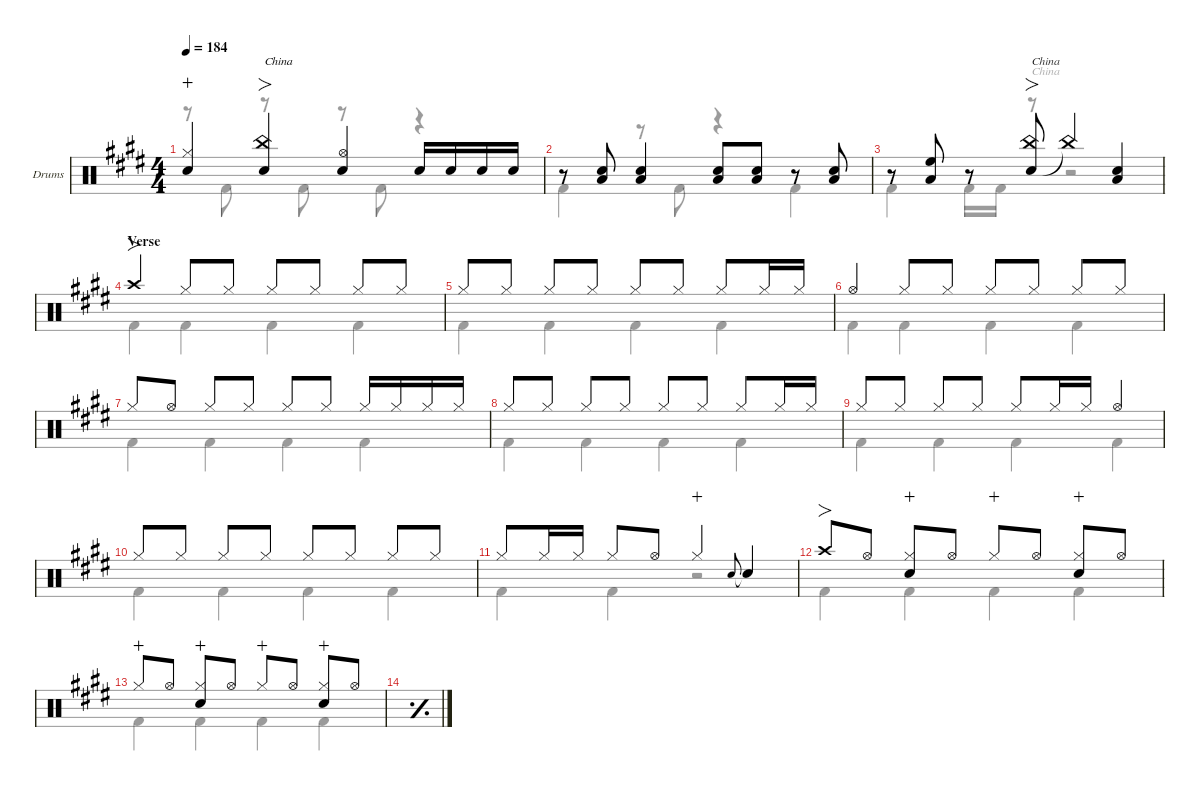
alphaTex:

\defaultSystemsLayout 4
\hideDynamics
\bracketExtendMode nobrackets
\firstSystemTrackNameOrientation horizontal
\track ("Drums" "Drums") {defaultSystemsLayout 4 instrument percussion}
\staff {score}
\articulation defaults
\voice
\ts (4 4)
\tempo 184
\clef neutral
\ks e
("Hi-Hat (closed)"{acc forcenatural} "Snare (hit) 2"{acc forcenatural}).4{dy f wahc} ("Snare (hit) 2"{acc forcenatural} "China (hit)"{acc forcenatural}).4{fo txt "China"} ("Hi-Hat (open)"{acc forcenatural} "Snare (hit) 2"{acc forcenatural}).4 "Snare (hit) 2"{acc forcenatural}.16 "Snare (hit) 2"{acc forcenatural}.16{dy mf} "Snare (hit) 2"{acc forcenatural}.16{dy f} "Snare (hit) 2"{acc forcenatural}.16{dy mf} |
r.8 ("Snare (hit) 2"{acc forcenatural} "Low Tom (hit)"{acc forcenatural}).8{dy f} ("Snare (hit) 2"{acc forcenatural} "Low Tom (hit)"{acc forcenatural}).4 ("Snare (hit) 2"{acc forcenatural} "Low Tom (hit)"{acc forcenatural}).8 ("Snare (hit) 2"{acc forcenatural} "Low Tom (hit)"{acc forcenatural}).8 r.8 ("Snare (hit) 2"{acc forcenatural} "Low Tom (hit)"{acc forcenatural}).8 |
r.8 ("High Floor Tom (hit)"{acc forcenatural} "Low Tom (hit)"{acc forcenatural}).8 r.8 ("Snare (hit) 2"{acc forcenatural} "China (hit)"{acc forcenatural}).8{fo txt "China"} "China (hit)"{t acc forcenatural}.4 ("Snare (hit) 2"{acc forcenatural} "Low Tom (hit)"{acc forcenatural}).4 |
\section ("" "Verse")
"Crash high (hit)"{acc forcenatural}.4{fo} "Hi-Hat (closed)"{acc forcenatural}.8 "Hi-Hat (closed)"{acc forcenatural}.8{dy mf} "Hi-Hat (closed)"{acc forcenatural}.8{dy f} "Hi-Hat (closed)"{acc forcenatural}.8{dy mf} "Hi-Hat (closed)"{acc forcenatural}.8{dy f} "Hi-Hat (closed)"{acc forcenatural}.8{dy mf} |
"Hi-Hat (closed)"{acc forcenatural}.8{dy f} "Hi-Hat (closed)"{acc forcenatural}.8{dy mf} "Hi-Hat (closed)"{acc forcenatural}.8{dy f} "Hi-Hat (closed)"{acc forcenatural}.8{dy mf} "Hi-Hat (closed)"{acc forcenatural}.8{dy f} "Hi-Hat (closed)"{acc forcenatural}.8{dy mf beam split} "Hi-Hat (closed)"{acc forcenatural}.8{dy f} "Hi-Hat (closed)"{acc forcenatural}.16{dy mf} "Hi-Hat (closed)"{acc forcenatural}.16 |
"Hi-Hat (open)"{acc forcenatural}.4{dy f} "Hi-Hat (closed)"{acc forcenatural}.8 "Hi-Hat (closed)"{acc forcenatural}.8{dy mf} "Hi-Hat (closed)"{acc forcenatural}.8{dy f} "Hi-Hat (closed)"{acc forcenatural}.8{dy mf} "Hi-Hat (closed)"{acc forcenatural}.8{dy f} "Hi-Hat (closed)"{acc forcenatural}.8{dy mf} |
"Hi-Hat (closed)"{acc forcenatural}.8{dy f} "Hi-Hat (open)"{acc forcenatural}.8 "Hi-Hat (closed)"{acc forcenatural}.8 "Hi-Hat (closed)"{acc forcenatural}.8{dy mf} "Hi-Hat (closed)"{acc forcenatural}.8{dy f} "Hi-Hat (closed)"{acc forcenatural}.8{dy mf beam split} "Hi-Hat (closed)"{acc forcenatural}.16{dy f} "Hi-Hat (closed)"{acc forcenatural}.16{dy mf} "Hi-Hat (closed)"{acc forcenatural}.16{dy f} "Hi-Hat (closed)"{acc forcenatural}.16{dy mf} |
"Hi-Hat (closed)"{acc forcenatural}.8{dy f} "Hi-Hat (closed)"{acc forcenatural}.8{dy mf} "Hi-Hat (closed)"{acc forcenatural}.8{dy f} "Hi-Hat (closed)"{acc forcenatural}.8{dy mf} "Hi-Hat (closed)"{acc forcenatural}.8{dy f} "Hi-Hat (closed)"{acc forcenatural}.8{dy mf beam split} "Hi-Hat (closed)"{acc forcenatural}.8{dy f} "Hi-Hat (closed)"{acc forcenatural}.16{dy mf} "Hi-Hat (closed)"{acc forcenatural}.16 |
"Hi-Hat (closed)"{acc forcenatural}.8{dy f} "Hi-Hat (closed)"{acc forcenatural}.8{dy mf} "Hi-Hat (closed)"{acc forcenatural}.8{dy f} "Hi-Hat (closed)"{acc forcenatural}.8{dy mf} "Hi-Hat (closed)"{acc forcenatural}.8{dy f} "Hi-Hat (closed)"{acc forcenatural}.16{dy mf} "Hi-Hat (closed)"{acc forcenatural}.16 "Hi-Hat (open)"{acc forcenatural}.4{dy f} |
"Hi-Hat (closed)"{acc forcenatural}.8 "Hi-Hat (closed)"{acc forcenatural}.8{dy mf} "Hi-Hat (closed)"{acc forcenatural}.8{dy f} "Hi-Hat (closed)"{acc forcenatural}.8{dy mf} "Hi-Hat (closed)"{acc forcenatural}.8{dy f} "Hi-Hat (closed)"{acc forcenatural}.8{dy mf} "Hi-Hat (closed)"{acc forcenatural}.8{dy f} "Hi-Hat (closed)"{acc forcenatural}.8{dy mf} |
"Hi-Hat (closed)"{acc forcenatural}.8{dy f} "Hi-Hat (closed)"{acc forcenatural}.16{dy mf} "Hi-Hat (closed)"{acc forcenatural}.16{beam split} "Hi-Hat (closed)"{acc forcenatural}.8{dy f} "Hi-Hat (open)"{acc forcenatural}.8 "Hi-Hat (closed)"{acc forcenatural}.4{dy mp wahc} "Snare (hit) 2"{acc forcenatural}.8{gr onbeat dy f} "Snare (hit) 2"{t acc forcenatural}.4{dy mp} |
"Crash high (hit)"{acc forcenatural}.8{fo dy f} "Hi-Hat (open)"{acc forcenatural}.8 ("Hi-Hat (closed)"{acc forcenatural} "Snare (hit) 2"{acc forcenatural}).8{wahc} "Hi-Hat (open)"{acc forcenatural}.8 "Hi-Hat (closed)"{acc forcenatural}.8{dy mp wahc} "Hi-Hat (open)"{acc forcenatural}.8{dy f} ("Hi-Hat (closed)"{acc forcenatural} "Snare (hit) 2"{acc forcenatural}).8{wahc} "Hi-Hat (open)"{acc forcenatural}.8 |
"Hi-Hat (closed)"{acc forcenatural}.8{dy mp wahc} "Hi-Hat (open)"{acc forcenatural}.8{dy f} ("Hi-Hat (closed)"{acc forcenatural} "Snare (hit) 2"{acc forcenatural}).8{wahc} "Hi-Hat (open)"{acc forcenatural}.8 "Hi-Hat (closed)"{acc forcenatural}.8{dy mp wahc} "Hi-Hat (open)"{acc forcenatural}.8{dy f} ("Hi-Hat (closed)"{acc forcenatural} "Snare (hit) 2"{acc forcenatural}).8{wahc} "Hi-Hat (open)"{acc forcenatural}.8 |
\simile simple
|
|
\voice
\clef neutral
\ottava regular
\simile none
\ks e
r.8{dy f} "Kick (hit) 2"{acc forcenatural}.8 r.8{txt "China"} "Kick (hit) 2"{acc forcenatural}.8 r.8 "Kick (hit) 2"{acc forcenatural}.8 r.4 |
"Kick (hit) 2"{acc forcenatural}.4 r.8 "Kick (hit) 2"{acc forcenatural}.8 r.4 "Kick (hit) 2"{acc forcenatural}.4 |
"Kick (hit) 2"{acc forcenatural}.4 "Kick (hit) 2"{acc forcenatural}.16 "Kick (hit) 2"{acc forcenatural}.16 r.8{txt "China"} r.2 |
"Kick (hit) 2"{acc forcenatural}.4 "Kick (hit) 2"{acc forcenatural}.4 "Kick (hit) 2"{acc forcenatural}.4 "Kick (hit) 2"{acc forcenatural}.4 |
"Kick (hit) 2"{acc forcenatural}.4 "Kick (hit) 2"{acc forcenatural}.4 "Kick (hit) 2"{acc forcenatural}.4 "Kick (hit) 2"{acc forcenatural}.4 |
"Kick (hit) 2"{acc forcenatural}.4 "Kick (hit) 2"{acc forcenatural}.4 "Kick (hit) 2"{acc forcenatural}.4 "Kick (hit) 2"{acc forcenatural}.4 |
"Kick (hit) 2"{acc forcenatural}.4 "Kick (hit) 2"{acc forcenatural}.4 "Kick (hit) 2"{acc forcenatural}.4 "Kick (hit) 2"{acc forcenatural}.4 |
"Kick (hit) 2"{acc forcenatural}.4 "Kick (hit) 2"{acc forcenatural}.4 "Kick (hit) 2"{acc forcenatural}.4 "Kick (hit) 2"{acc forcenatural}.4 |
"Kick (hit) 2"{acc forcenatural}.4 "Kick (hit) 2"{acc forcenatural}.4 "Kick (hit) 2"{acc forcenatural}.4 "Kick (hit) 2"{acc forcenatural}.4 |
"Kick (hit) 2"{acc forcenatural}.4 "Kick (hit) 2"{acc forcenatural}.4 "Kick (hit) 2"{acc forcenatural}.4 "Kick (hit) 2"{acc forcenatural}.4 |
"Kick (hit) 2"{acc forcenatural}.4 "Kick (hit) 2"{acc forcenatural}.4 r.2 |
"Kick (hit) 2"{acc forcenatural}.4 "Kick (hit) 2"{acc forcenatural}.4 "Kick (hit) 2"{acc forcenatural}.4 "Kick (hit) 2"{acc forcenatural}.4 |
"Kick (hit) 2"{acc forcenatural}.4 "Kick (hit) 2"{acc forcenatural}.4 "Kick (hit) 2"{acc forcenatural}.4 "Kick (hit) 2"{acc forcenatural}.4 |
\simile simple
|
|
